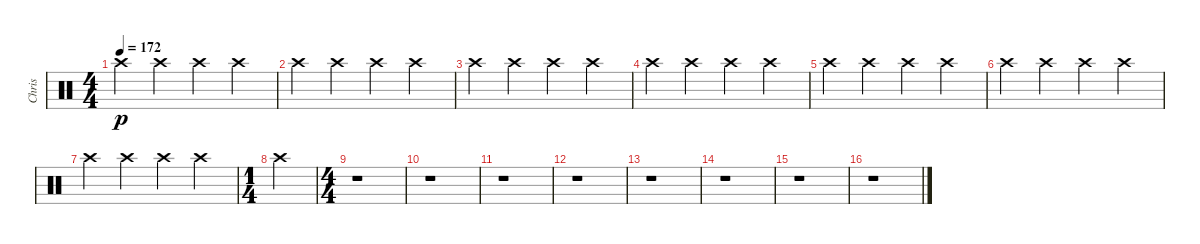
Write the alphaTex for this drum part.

\track ("Chris" "Chris") {instrument percussion}
\staff {score}
\articulation defaults
\ts (4 4)
\tempo 172
\clef neutral
\ks c "Crash high (hit)".4{dy p} "Crash high (hit)".4 "Crash high (hit)".4 "Crash high (hit)".4
|
"Crash high (hit)".4 "Crash high (hit)".4 "Crash high (hit)".4 "Crash high (hit)".4 |
"Crash high (hit)".4 "Crash high (hit)".4 "Crash high (hit)".4 "Crash high (hit)".4 |
"Crash high (hit)".4 "Crash high (hit)".4 "Crash high (hit)".4 "Crash high (hit)".4 |
"Crash high (hit)".4 "Crash high (hit)".4 "Crash high (hit)".4 "Crash high (hit)".4 |
"Crash high (hit)".4 "Crash high (hit)".4 "Crash high (hit)".4 "Crash high (hit)".4 |
"Crash high (hit)".4 "Crash high (hit)".4 "Crash high (hit)".4 "Crash high (hit)".4 |
\ts (1 4)
"Crash high (hit)".4 |
\ts (4 4)
r.1 |
r.1 |
r.1 |
r.1 |
r.1 |
r.1 |
r.1 |
r.1
